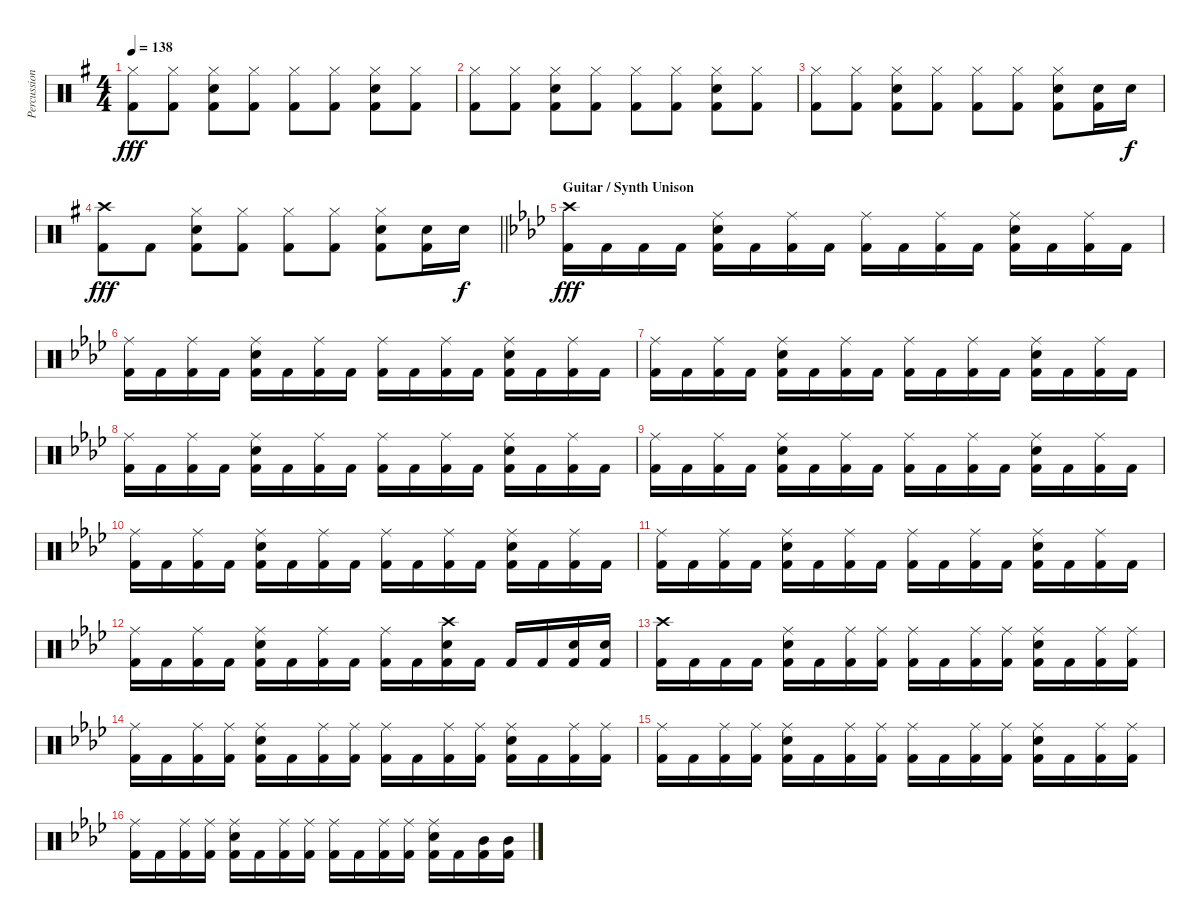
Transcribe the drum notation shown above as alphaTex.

\track ("Percussion" "Percussion") {instrument percussion}
\staff {score}
\articulation defaults
\ts (4 4)
\tempo 138
\clef neutral
\ks eminor
("Hi-Hat (closed)" "Kick (hit) 2").8{dy fff} ("Hi-Hat (closed)" "Kick (hit) 2").8 ("Hi-Hat (closed)" "Electric Snare (hit)" "Kick (hit) 2").8 ("Hi-Hat (closed)" "Kick (hit) 2").8 ("Hi-Hat (closed)" "Kick (hit) 2").8 ("Hi-Hat (closed)" "Kick (hit) 2").8 ("Hi-Hat (closed)" "Electric Snare (hit)" "Kick (hit) 2").8 ("Hi-Hat (closed)" "Kick (hit) 2").8 |
("Hi-Hat (closed)" "Kick (hit) 2").8 ("Hi-Hat (closed)" "Kick (hit) 2").8 ("Hi-Hat (closed)" "Electric Snare (hit)" "Kick (hit) 2").8 ("Hi-Hat (closed)" "Kick (hit) 2").8 ("Hi-Hat (closed)" "Kick (hit) 2").8 ("Hi-Hat (closed)" "Kick (hit) 2").8 ("Hi-Hat (closed)" "Electric Snare (hit)" "Kick (hit) 2").8 ("Hi-Hat (closed)" "Kick (hit) 2").8 |
("Hi-Hat (closed)" "Kick (hit) 2").8 ("Hi-Hat (closed)" "Kick (hit) 2").8 ("Hi-Hat (closed)" "Electric Snare (hit)" "Kick (hit) 2").8 ("Hi-Hat (closed)" "Kick (hit) 2").8 ("Hi-Hat (closed)" "Kick (hit) 2").8 ("Hi-Hat (closed)" "Kick (hit) 2").8 ("Hi-Hat (closed)" "Electric Snare (hit)" "Kick (hit) 2").8 ("Electric Snare (hit)" "Kick (hit) 2").16 "Electric Snare (hit)".16{dy f} |
\barLineRight lightlight
("Crash high (hit)" "Kick (hit) 2").8{dy fff} "Kick (hit) 2".8 ("Hi-Hat (closed)" "Electric Snare (hit)" "Kick (hit) 2").8 ("Hi-Hat (closed)" "Kick (hit) 2").8 ("Hi-Hat (closed)" "Kick (hit) 2").8 ("Hi-Hat (closed)" "Kick (hit) 2").8 ("Hi-Hat (closed)" "Electric Snare (hit)" "Kick (hit) 2").8 ("Electric Snare (hit)" "Kick (hit) 2").16 "Electric Snare (hit)".16{dy f} |
\section ("" "Guitar / Synth Unison")
\ks fminor
("Crash high (hit)" "Kick (hit) 2").16{dy fff} "Kick (hit) 2".16 "Kick (hit) 2".16 "Kick (hit) 2".16 ("Ride (middle)" "Electric Snare (hit)" "Kick (hit) 2").16 "Kick (hit) 2".16 ("Ride (middle)" "Kick (hit) 2").16 "Kick (hit) 2".16 ("Ride (middle)" "Kick (hit) 2").16 "Kick (hit) 2".16 ("Ride (middle)" "Kick (hit) 2").16 "Kick (hit) 2".16 ("Ride (middle)" "Electric Snare (hit)" "Kick (hit) 2").16 "Kick (hit) 2".16 ("Ride (middle)" "Kick (hit) 2").16 "Kick (hit) 2".16 |
("Ride (middle)" "Kick (hit) 2").16 "Kick (hit) 2".16 ("Ride (middle)" "Kick (hit) 2").16 "Kick (hit) 2".16 ("Ride (middle)" "Electric Snare (hit)" "Kick (hit) 2").16 "Kick (hit) 2".16 ("Ride (middle)" "Kick (hit) 2").16 "Kick (hit) 2".16 ("Ride (middle)" "Kick (hit) 2").16 "Kick (hit) 2".16 ("Ride (middle)" "Kick (hit) 2").16 "Kick (hit) 2".16 ("Ride (middle)" "Electric Snare (hit)" "Kick (hit) 2").16 "Kick (hit) 2".16 ("Ride (middle)" "Kick (hit) 2").16 "Kick (hit) 2".16 |
("Ride (middle)" "Kick (hit) 2").16 "Kick (hit) 2".16 ("Ride (middle)" "Kick (hit) 2").16 "Kick (hit) 2".16 ("Ride (middle)" "Electric Snare (hit)" "Kick (hit) 2").16 "Kick (hit) 2".16 ("Ride (middle)" "Kick (hit) 2").16 "Kick (hit) 2".16 ("Ride (middle)" "Kick (hit) 2").16 "Kick (hit) 2".16 ("Ride (middle)" "Kick (hit) 2").16 "Kick (hit) 2".16 ("Ride (middle)" "Electric Snare (hit)" "Kick (hit) 2").16 "Kick (hit) 2".16 ("Ride (middle)" "Kick (hit) 2").16 "Kick (hit) 2".16 |
("Ride (middle)" "Kick (hit) 2").16 "Kick (hit) 2".16 ("Ride (middle)" "Kick (hit) 2").16 "Kick (hit) 2".16 ("Ride (middle)" "Electric Snare (hit)" "Kick (hit) 2").16 "Kick (hit) 2".16 ("Ride (middle)" "Kick (hit) 2").16 "Kick (hit) 2".16 ("Ride (middle)" "Kick (hit) 2").16 "Kick (hit) 2".16 ("Ride (middle)" "Kick (hit) 2").16 "Kick (hit) 2".16 ("Ride (middle)" "Electric Snare (hit)" "Kick (hit) 2").16 "Kick (hit) 2".16 ("Ride (middle)" "Kick (hit) 2").16 "Kick (hit) 2".16 |
("Ride (middle)" "Kick (hit) 2").16 "Kick (hit) 2".16 ("Ride (middle)" "Kick (hit) 2").16 "Kick (hit) 2".16 ("Ride (middle)" "Electric Snare (hit)" "Kick (hit) 2").16 "Kick (hit) 2".16 ("Ride (middle)" "Kick (hit) 2").16 "Kick (hit) 2".16 ("Ride (middle)" "Kick (hit) 2").16 "Kick (hit) 2".16 ("Ride (middle)" "Kick (hit) 2").16 "Kick (hit) 2".16 ("Ride (middle)" "Electric Snare (hit)" "Kick (hit) 2").16 "Kick (hit) 2".16 ("Ride (middle)" "Kick (hit) 2").16 "Kick (hit) 2".16 |
("Ride (middle)" "Kick (hit) 2").16 "Kick (hit) 2".16 ("Ride (middle)" "Kick (hit) 2").16 "Kick (hit) 2".16 ("Ride (middle)" "Electric Snare (hit)" "Kick (hit) 2").16 "Kick (hit) 2".16 ("Ride (middle)" "Kick (hit) 2").16 "Kick (hit) 2".16 ("Ride (middle)" "Kick (hit) 2").16 "Kick (hit) 2".16 ("Ride (middle)" "Kick (hit) 2").16 "Kick (hit) 2".16 ("Ride (middle)" "Electric Snare (hit)" "Kick (hit) 2").16 "Kick (hit) 2".16 ("Ride (middle)" "Kick (hit) 2").16 "Kick (hit) 2".16 |
("Ride (middle)" "Kick (hit) 2").16 "Kick (hit) 2".16 ("Ride (middle)" "Kick (hit) 2").16 "Kick (hit) 2".16 ("Ride (middle)" "Electric Snare (hit)" "Kick (hit) 2").16 "Kick (hit) 2".16 ("Ride (middle)" "Kick (hit) 2").16 "Kick (hit) 2".16 ("Ride (middle)" "Kick (hit) 2").16 "Kick (hit) 2".16 ("Ride (middle)" "Kick (hit) 2").16 "Kick (hit) 2".16 ("Ride (middle)" "Electric Snare (hit)" "Kick (hit) 2").16 "Kick (hit) 2".16 ("Ride (middle)" "Kick (hit) 2").16 "Kick (hit) 2".16 |
("Ride (middle)" "Kick (hit) 2").16 "Kick (hit) 2".16 ("Ride (middle)" "Kick (hit) 2").16 "Kick (hit) 2".16 ("Ride (middle)" "Electric Snare (hit)" "Kick (hit) 2").16 "Kick (hit) 2".16 ("Ride (middle)" "Kick (hit) 2").16 "Kick (hit) 2".16 ("Ride (middle)" "Kick (hit) 2").16 "Kick (hit) 2".16 ("Crash high (hit)" "Electric Snare (hit)" "Kick (hit) 2").16 "Kick (hit) 2".16 "Kick (hit) 2".16 "Kick (hit) 2".16 ("Electric Snare (hit)" "Kick (hit) 2").16 ("Electric Snare (hit)" "Kick (hit) 2").16 |
("Crash high (hit)" "Kick (hit) 2").16 "Kick (hit) 2".16 "Kick (hit) 2".16 "Kick (hit) 2".16 ("Ride (middle)" "Electric Snare (hit)" "Kick (hit) 2").16 "Kick (hit) 2".16 ("Ride (middle)" "Kick (hit) 2").16 ("Ride (middle)" "Kick (hit) 2").16 ("Ride (middle)" "Kick (hit) 2").16 "Kick (hit) 2".16 ("Ride (middle)" "Kick (hit) 2").16 ("Ride (middle)" "Kick (hit) 2").16 ("Ride (middle)" "Electric Snare (hit)" "Kick (hit) 2").16 "Kick (hit) 2".16 ("Ride (middle)" "Kick (hit) 2").16 ("Ride (middle)" "Kick (hit) 2").16 |
("Ride (middle)" "Kick (hit) 2").16 "Kick (hit) 2".16 ("Ride (middle)" "Kick (hit) 2").16 ("Ride (middle)" "Kick (hit) 2").16 ("Ride (middle)" "Electric Snare (hit)" "Kick (hit) 2").16 "Kick (hit) 2".16 ("Ride (middle)" "Kick (hit) 2").16 ("Ride (middle)" "Kick (hit) 2").16 ("Ride (middle)" "Kick (hit) 2").16 "Kick (hit) 2".16 ("Ride (middle)" "Kick (hit) 2").16 ("Ride (middle)" "Kick (hit) 2").16 ("Ride (middle)" "Electric Snare (hit)" "Kick (hit) 2").16 "Kick (hit) 2".16 ("Ride (middle)" "Kick (hit) 2").16 ("Ride (middle)" "Kick (hit) 2").16 |
("Ride (middle)" "Kick (hit) 2").16 "Kick (hit) 2".16 ("Ride (middle)" "Kick (hit) 2").16 ("Ride (middle)" "Kick (hit) 2").16 ("Ride (middle)" "Electric Snare (hit)" "Kick (hit) 2").16 "Kick (hit) 2".16 ("Ride (middle)" "Kick (hit) 2").16 ("Ride (middle)" "Kick (hit) 2").16 ("Ride (middle)" "Kick (hit) 2").16 "Kick (hit) 2".16 ("Ride (middle)" "Kick (hit) 2").16 ("Ride (middle)" "Kick (hit) 2").16 ("Ride (middle)" "Electric Snare (hit)" "Kick (hit) 2").16 "Kick (hit) 2".16 ("Ride (middle)" "Kick (hit) 2").16 ("Ride (middle)" "Kick (hit) 2").16 |
("Ride (middle)" "Kick (hit) 2").16 "Kick (hit) 2".16 ("Ride (middle)" "Kick (hit) 2").16 ("Ride (middle)" "Kick (hit) 2").16 ("Ride (middle)" "Electric Snare (hit)" "Kick (hit) 2").16 "Kick (hit) 2".16 ("Ride (middle)" "Kick (hit) 2").16 ("Ride (middle)" "Kick (hit) 2").16 ("Ride (middle)" "Kick (hit) 2").16 "Kick (hit) 2".16 ("Ride (middle)" "Kick (hit) 2").16 ("Ride (middle)" "Kick (hit) 2").16 ("Ride (middle)" "Electric Snare (hit)" "Kick (hit) 2").16 "Kick (hit) 2".16 ("Mid Tom (hit)" "Kick (hit) 2").16 ("Mid Tom (hit)" "Kick (hit) 2").16
